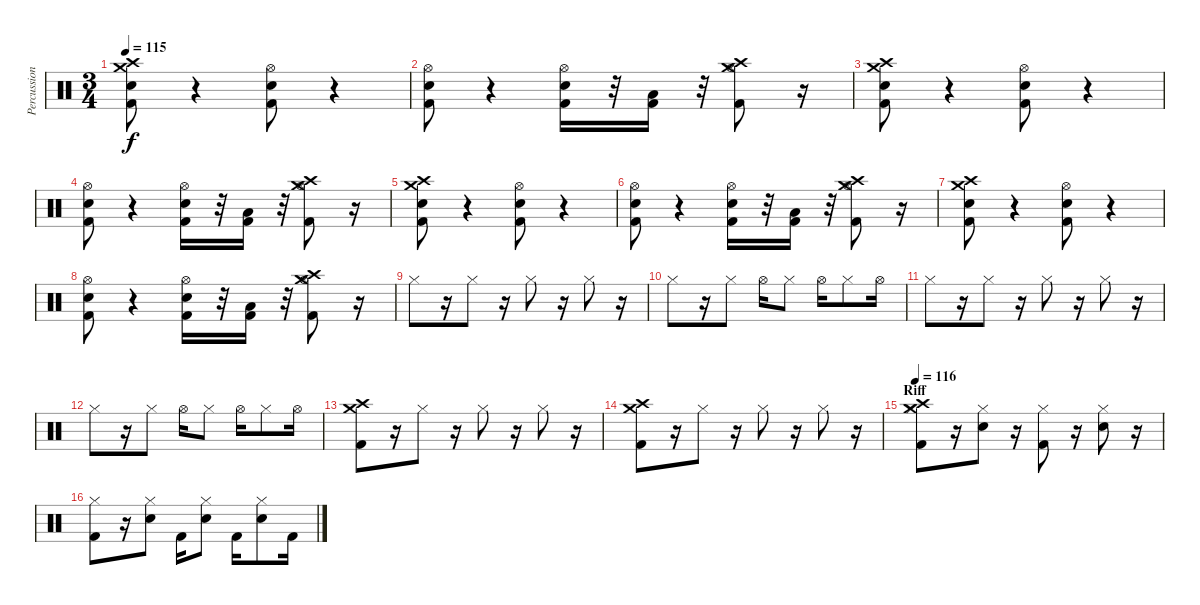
\track ("Percussion" "Percussion") {instrument percussion}
\staff {score}
\articulation defaults
\ts (3 4)
\tempo 115
\clef neutral
\ks c
("Crash high (hit)" "Crash medium (hit)" "Snare (hit) 2" "Kick (hit) 2").8{dy f} r.4 ("Hi-Hat (open)" "Snare (hit) 2" "Kick (hit) 2").8 r.4 |
("Hi-Hat (open)" "Snare (hit) 2" "Kick (hit) 2").8 r.4 ("Hi-Hat (open)" "Snare (hit) 2" "Kick (hit) 2").16 r.32 ("Low Tom (hit)" "Kick (hit) 2").16 r.32 ("Hi-Hat (open)" "Crash medium (hit)" "Crash high (hit)" "Kick (hit) 2").8 r.16 |
("Crash high (hit)" "Crash medium (hit)" "Snare (hit) 2" "Kick (hit) 2").8 r.4 ("Hi-Hat (open)" "Snare (hit) 2" "Kick (hit) 2").8 r.4 |
("Hi-Hat (open)" "Snare (hit) 2" "Kick (hit) 2").8 r.4 ("Hi-Hat (open)" "Snare (hit) 2" "Kick (hit) 2").16 r.32 ("Low Tom (hit)" "Kick (hit) 2").16 r.32 ("Hi-Hat (open)" "Crash medium (hit)" "Crash high (hit)" "Kick (hit) 2").8 r.16 |
("Crash high (hit)" "Crash medium (hit)" "Snare (hit) 2" "Kick (hit) 2").8 r.4 ("Hi-Hat (open)" "Snare (hit) 2" "Kick (hit) 2").8 r.4 |
("Hi-Hat (open)" "Snare (hit) 2" "Kick (hit) 2").8 r.4 ("Hi-Hat (open)" "Snare (hit) 2" "Kick (hit) 2").16 r.32 ("Low Tom (hit)" "Kick (hit) 2").16 r.32 ("Hi-Hat (open)" "Crash medium (hit)" "Crash high (hit)" "Kick (hit) 2").8 r.16 |
("Crash high (hit)" "Crash medium (hit)" "Snare (hit) 2" "Kick (hit) 2").8 r.4 ("Hi-Hat (open)" "Snare (hit) 2" "Kick (hit) 2").8 r.4 |
("Hi-Hat (open)" "Snare (hit) 2" "Kick (hit) 2").8 r.4 ("Hi-Hat (open)" "Snare (hit) 2" "Kick (hit) 2").16 r.32 ("Low Tom (hit)" "Kick (hit) 2").16 r.32 ("Hi-Hat (open)" "Crash medium (hit)" "Crash high (hit)" "Kick (hit) 2").8 r.16 |
"Hi-Hat (closed)".8 r.16 "Hi-Hat (closed)".8 r.16 "Hi-Hat (closed)".8 r.16 "Hi-Hat (closed)".8 r.16 |
"Hi-Hat (closed)".8 r.16 "Hi-Hat (closed)".8 "Hi-Hat (open)".16 "Hi-Hat (closed)".8 "Hi-Hat (open)".16 "Hi-Hat (closed)".8 "Hi-Hat (open)".16 |
"Hi-Hat (closed)".8 r.16 "Hi-Hat (closed)".8 r.16 "Hi-Hat (closed)".8 r.16 "Hi-Hat (closed)".8 r.16 |
"Hi-Hat (closed)".8 r.16 "Hi-Hat (closed)".8 "Hi-Hat (open)".16 "Hi-Hat (closed)".8 "Hi-Hat (open)".16 "Hi-Hat (closed)".8 "Hi-Hat (open)".16 |
("Crash medium (hit)" "Crash high (hit)" "Kick (hit) 2").8 r.16 "Hi-Hat (closed)".8 r.16 "Hi-Hat (closed)".8 r.16 "Hi-Hat (closed)".8 r.16 |
("Crash medium (hit)" "Crash high (hit)" "Kick (hit) 2").8 r.16 "Hi-Hat (closed)".8 r.16 "Hi-Hat (closed)".8 r.16 "Hi-Hat (closed)".8 r.16 |
\section ("" "Riff")
\tempo 116
("Hi-Hat (closed)" "Crash high (hit)" "Crash medium (hit)" "Kick (hit) 2").8 r.16 ("Hi-Hat (closed)" "Snare (hit) 2").8 r.16 ("Hi-Hat (closed)" "Kick (hit) 2").8 r.16 ("Hi-Hat (closed)" "Snare (hit) 2").8 r.16 |
("Hi-Hat (closed)" "Kick (hit) 2").8 r.16 ("Hi-Hat (closed)" "Snare (hit) 2").8 "Kick (hit) 2".16 ("Hi-Hat (closed)" "Snare (hit) 2").8 "Kick (hit) 2".16 ("Hi-Hat (closed)" "Snare (hit) 2").8 "Kick (hit) 2".16
